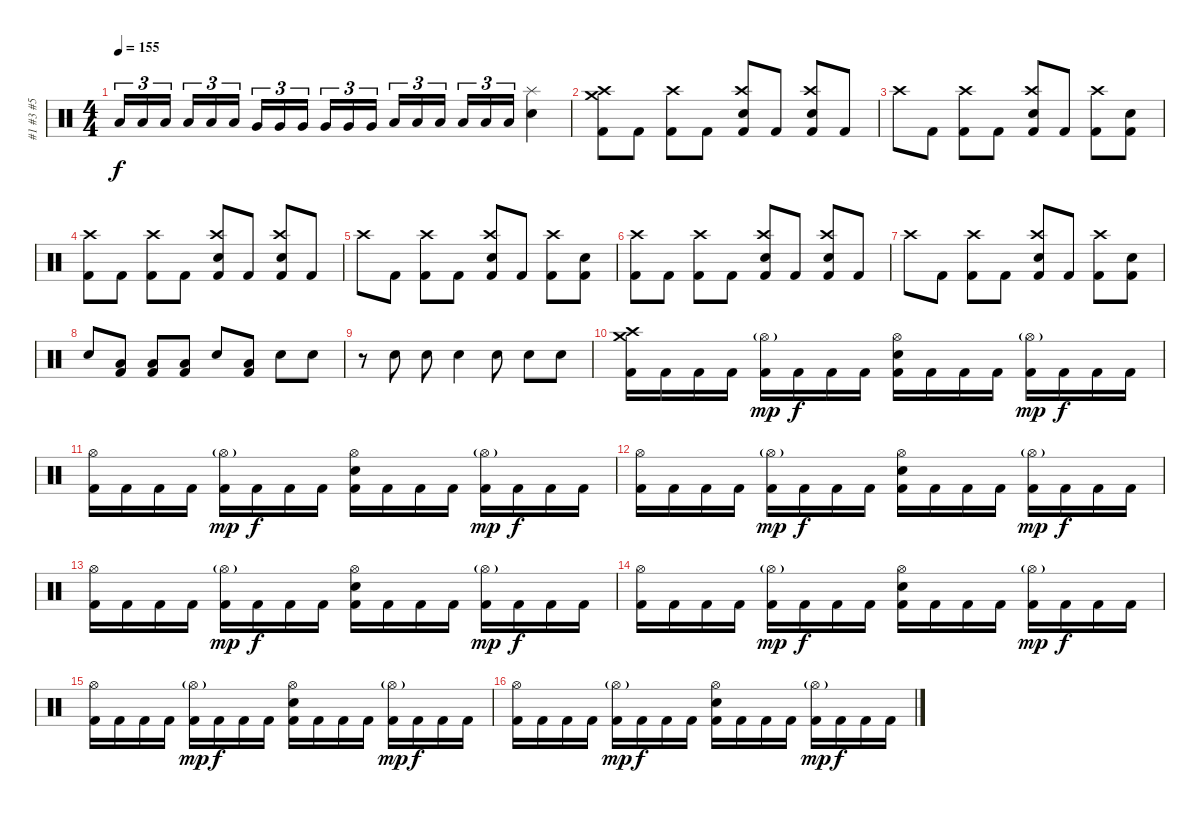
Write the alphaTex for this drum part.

\track ("#1 #3 #5" "#1 #3 #5") {instrument percussion}
\staff {score}
\articulation defaults
\ts (4 4)
\tempo 155
\clef neutral
\ks c "Low Tom (hit)".16{tu (3 2) dy f} "Low Tom (hit)".16{tu (3 2)} "Low Tom (hit)".16{tu (3 2)} "Low Tom (hit)".16{tu (3 2)} "Low Tom (hit)".16{tu (3 2)} "Low Tom (hit)".16{tu (3 2)} "Very Low Tom (hit)".16{tu (3 2)} "Very Low Tom (hit)".16{tu (3 2)} "Very Low Tom (hit)".16{tu (3 2)} "Very Low Tom (hit)".16{tu (3 2)} "Very Low Tom (hit)".16{tu (3 2)} "Very Low Tom (hit)".16{tu (3 2)} "Low Floor Tom (hit)".16{tu (3 2)} "Low Floor Tom (hit)".16{tu (3 2)} "Low Floor Tom (hit)".16{tu (3 2)} "Low Floor Tom (hit)".16{tu (3 2)} "Low Floor Tom (hit)".16{tu (3 2)} "Low Floor Tom (hit)".16{tu (3 2)}
("Splash (hit)" "Electric Snare (hit)").4 |
\section ("" " ")
("Crash medium (hit)" "Crash high (hit)" "Kick (hit) 2").8 "Kick (hit) 2".8 ("Crash high (hit)" "Kick (hit) 2").8 "Kick (hit) 2".8 ("Crash high (hit)" "Electric Snare (hit)" "Kick (hit) 2").8 "Kick (hit) 2".8 ("Crash high (hit)" "Electric Snare (hit)" "Kick (hit) 2").8 "Kick (hit) 2".8 |
"Crash high (hit)".8 "Kick (hit) 2".8 ("Crash high (hit)" "Kick (hit) 2").8 "Kick (hit) 2".8 ("Crash high (hit)" "Electric Snare (hit)" "Kick (hit) 2").8 "Kick (hit) 2".8 ("Crash high (hit)" "Kick (hit) 2").8 ("Electric Snare (hit)" "Kick (hit) 2").8 |
("Crash high (hit)" "Kick (hit) 2").8 "Kick (hit) 2".8 ("Crash high (hit)" "Kick (hit) 2").8 "Kick (hit) 2".8 ("Crash high (hit)" "Electric Snare (hit)" "Kick (hit) 2").8 "Kick (hit) 2".8 ("Crash high (hit)" "Electric Snare (hit)" "Kick (hit) 2").8 "Kick (hit) 2".8 |
"Crash high (hit)".8 "Kick (hit) 2".8 ("Crash high (hit)" "Kick (hit) 2").8 "Kick (hit) 2".8 ("Crash high (hit)" "Electric Snare (hit)" "Kick (hit) 2").8 "Kick (hit) 2".8 ("Crash high (hit)" "Kick (hit) 2").8 ("Electric Snare (hit)" "Kick (hit) 2").8 |
("Crash high (hit)" "Kick (hit) 2").8 "Kick (hit) 2".8 ("Crash high (hit)" "Kick (hit) 2").8 "Kick (hit) 2".8 ("Crash high (hit)" "Electric Snare (hit)" "Kick (hit) 2").8 "Kick (hit) 2".8 ("Crash high (hit)" "Electric Snare (hit)" "Kick (hit) 2").8 "Kick (hit) 2".8 |
"Crash high (hit)".8 "Kick (hit) 2".8 ("Crash high (hit)" "Kick (hit) 2").8 "Kick (hit) 2".8 ("Crash high (hit)" "Electric Snare (hit)" "Kick (hit) 2").8 "Kick (hit) 2".8 ("Crash high (hit)" "Kick (hit) 2").8 ("Electric Snare (hit)" "Kick (hit) 2").8 |
"Electric Snare (hit)".8 ("Low Floor Tom (hit)" "Kick (hit) 2").8 ("Low Floor Tom (hit)" "Kick (hit) 2").8 ("Low Floor Tom (hit)" "Kick (hit) 2").8 "Electric Snare (hit)".8 ("Low Floor Tom (hit)" "Kick (hit) 2").8 "Electric Snare (hit)".8 "Electric Snare (hit)".8 |
r.8 "Electric Snare (hit)".8 "Electric Snare (hit)".8 "Electric Snare (hit)".4 "Electric Snare (hit)".8 "Electric Snare (hit)".8 "Electric Snare (hit)".8 |
\section ("" " ")
("Crash high (hit)" "Crash medium (hit)" "Kick (hit) 2").16 "Kick (hit) 2".16 "Kick (hit) 2".16 "Kick (hit) 2".16 ("Hi-Hat (open)"{g} "Kick (hit) 2").16{dy mp} "Kick (hit) 2".16{dy f} "Kick (hit) 2".16 "Kick (hit) 2".16 ("Hi-Hat (open)" "Electric Snare (hit)" "Kick (hit) 2").16 "Kick (hit) 2".16 "Kick (hit) 2".16 "Kick (hit) 2".16 ("Hi-Hat (open)"{g} "Kick (hit) 2").16{dy mp} "Kick (hit) 2".16{dy f} "Kick (hit) 2".16 "Kick (hit) 2".16 |
("Hi-Hat (open)" "Kick (hit) 2").16 "Kick (hit) 2".16 "Kick (hit) 2".16 "Kick (hit) 2".16 ("Hi-Hat (open)"{g} "Kick (hit) 2").16{dy mp} "Kick (hit) 2".16{dy f} "Kick (hit) 2".16 "Kick (hit) 2".16 ("Hi-Hat (open)" "Electric Snare (hit)" "Kick (hit) 2").16 "Kick (hit) 2".16 "Kick (hit) 2".16 "Kick (hit) 2".16 ("Hi-Hat (open)"{g} "Kick (hit) 2").16{dy mp} "Kick (hit) 2".16{dy f} "Kick (hit) 2".16 "Kick (hit) 2".16 |
("Hi-Hat (open)" "Kick (hit) 2").16 "Kick (hit) 2".16 "Kick (hit) 2".16 "Kick (hit) 2".16 ("Hi-Hat (open)"{g} "Kick (hit) 2").16{dy mp} "Kick (hit) 2".16{dy f} "Kick (hit) 2".16 "Kick (hit) 2".16 ("Hi-Hat (open)" "Electric Snare (hit)" "Kick (hit) 2").16 "Kick (hit) 2".16 "Kick (hit) 2".16 "Kick (hit) 2".16 ("Hi-Hat (open)"{g} "Kick (hit) 2").16{dy mp} "Kick (hit) 2".16{dy f} "Kick (hit) 2".16 "Kick (hit) 2".16 |
("Hi-Hat (open)" "Kick (hit) 2").16 "Kick (hit) 2".16 "Kick (hit) 2".16 "Kick (hit) 2".16 ("Hi-Hat (open)"{g} "Kick (hit) 2").16{dy mp} "Kick (hit) 2".16{dy f} "Kick (hit) 2".16 "Kick (hit) 2".16 ("Hi-Hat (open)" "Electric Snare (hit)" "Kick (hit) 2").16 "Kick (hit) 2".16 "Kick (hit) 2".16 "Kick (hit) 2".16 ("Hi-Hat (open)"{g} "Kick (hit) 2").16{dy mp} "Kick (hit) 2".16{dy f} "Kick (hit) 2".16 "Kick (hit) 2".16 |
("Hi-Hat (open)" "Kick (hit) 2").16 "Kick (hit) 2".16 "Kick (hit) 2".16 "Kick (hit) 2".16 ("Hi-Hat (open)"{g} "Kick (hit) 2").16{dy mp} "Kick (hit) 2".16{dy f} "Kick (hit) 2".16 "Kick (hit) 2".16 ("Hi-Hat (open)" "Electric Snare (hit)" "Kick (hit) 2").16 "Kick (hit) 2".16 "Kick (hit) 2".16 "Kick (hit) 2".16 ("Hi-Hat (open)"{g} "Kick (hit) 2").16{dy mp} "Kick (hit) 2".16{dy f} "Kick (hit) 2".16 "Kick (hit) 2".16 |
("Hi-Hat (open)" "Kick (hit) 2").16 "Kick (hit) 2".16 "Kick (hit) 2".16 "Kick (hit) 2".16 ("Hi-Hat (open)"{g} "Kick (hit) 2").16{dy mp} "Kick (hit) 2".16{dy f} "Kick (hit) 2".16 "Kick (hit) 2".16 ("Hi-Hat (open)" "Electric Snare (hit)" "Kick (hit) 2").16 "Kick (hit) 2".16 "Kick (hit) 2".16 "Kick (hit) 2".16 ("Hi-Hat (open)"{g} "Kick (hit) 2").16{dy mp} "Kick (hit) 2".16{dy f} "Kick (hit) 2".16 "Kick (hit) 2".16 |
("Hi-Hat (open)" "Kick (hit) 2").16 "Kick (hit) 2".16 "Kick (hit) 2".16 "Kick (hit) 2".16 ("Hi-Hat (open)"{g} "Kick (hit) 2").16{dy mp} "Kick (hit) 2".16{dy f} "Kick (hit) 2".16 "Kick (hit) 2".16 ("Hi-Hat (open)" "Electric Snare (hit)" "Kick (hit) 2").16 "Kick (hit) 2".16 "Kick (hit) 2".16 "Kick (hit) 2".16 ("Hi-Hat (open)"{g} "Kick (hit) 2").16{dy mp} "Kick (hit) 2".16{dy f} "Kick (hit) 2".16 "Kick (hit) 2".16
